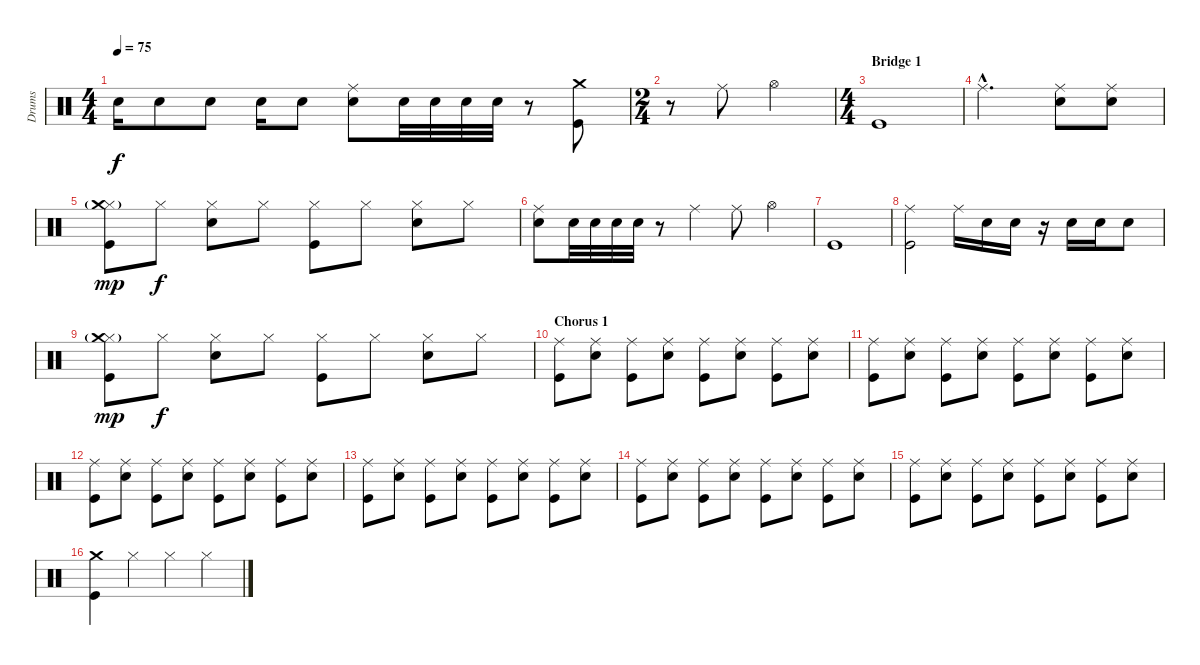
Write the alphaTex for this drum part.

\track ("Drums" "Drums") {instrument percussion}
\staff {score}
\articulation defaults
\ts (4 4)
\tempo 75
\clef neutral
\ks c "Snare (hit) 2".16{dy f} "Snare (hit) 2".8 "Snare (hit) 2".8 "Snare (hit) 2".16 "Snare (hit) 2".8
("Ride (middle)" "Snare (hit) 2").8 "Snare (hit) 2".32 "Snare (hit) 2".32 "Snare (hit) 2".32 "Snare (hit) 2".32 r.8 ("Crash medium (hit)" "Kick (hit)").8 |
\ts (2 4)
r.8 "Ride (middle)".8 "Hi-Hat (open)".4 |
\ts (4 4)
\section ("" "Bridge 1")
"Kick (hit)".1 |
"Ride (middle)"{hac}.2{d} ("Ride (middle)" "Snare (hit) 2").8 ("Ride (middle)" "Snare (hit) 2").8 |
("Hi-Hat (closed)" "Crash medium (hit)"{g} "Kick (hit)").8{dy mp} "Hi-Hat (closed)".8{dy f} ("Hi-Hat (closed)" "Snare (hit) 2").8 "Hi-Hat (closed)".8 ("Hi-Hat (closed)" "Kick (hit)").8 "Hi-Hat (closed)".8 ("Hi-Hat (closed)" "Snare (hit) 2").8 "Hi-Hat (closed)".8 |
("Ride (middle)" "Snare (hit) 2").8 "Snare (hit) 2".32 "Snare (hit) 2".32 "Snare (hit) 2".32 "Snare (hit) 2".32 r.8 "Ride (middle)".4 "Ride (middle)".8 "Hi-Hat (open)".4 |
"Kick (hit)".1 |
("Ride (middle)" "Kick (hit)").2 "Ride (middle)".16 "Snare (hit) 2".16 "Snare (hit) 2".16 r.16 "Snare (hit) 2".16 "Snare (hit) 2".16 "Snare (hit) 2".8 |
("Hi-Hat (closed)" "Crash medium (hit)"{g} "Kick (hit)").8{dy mp} "Hi-Hat (closed)".8{dy f} ("Hi-Hat (closed)" "Snare (hit) 2").8 "Hi-Hat (closed)".8 ("Hi-Hat (closed)" "Kick (hit)").8 "Hi-Hat (closed)".8 ("Hi-Hat (closed)" "Snare (hit) 2").8 "Hi-Hat (closed)".8 |
\section ("" "Chorus 1")
("Ride (middle)" "Kick (hit)").8 ("Ride (middle)" "Snare (hit) 2").8 ("Ride (middle)" "Kick (hit)").8 ("Ride (middle)" "Snare (hit) 2").8 ("Ride (middle)" "Kick (hit)").8 ("Ride (middle)" "Snare (hit) 2").8 ("Ride (middle)" "Kick (hit)").8 ("Ride (middle)" "Snare (hit) 2").8 |
("Ride (middle)" "Kick (hit)").8 ("Ride (middle)" "Snare (hit) 2").8 ("Ride (middle)" "Kick (hit)").8 ("Ride (middle)" "Snare (hit) 2").8 ("Ride (middle)" "Kick (hit)").8 ("Ride (middle)" "Snare (hit) 2").8 ("Ride (middle)" "Kick (hit)").8 ("Ride (middle)" "Snare (hit) 2").8 |
("Ride (middle)" "Kick (hit)").8 ("Ride (middle)" "Snare (hit) 2").8 ("Ride (middle)" "Kick (hit)").8 ("Ride (middle)" "Snare (hit) 2").8 ("Ride (middle)" "Kick (hit)").8 ("Ride (middle)" "Snare (hit) 2").8 ("Ride (middle)" "Kick (hit)").8 ("Ride (middle)" "Snare (hit) 2").8 |
("Ride (middle)" "Kick (hit)").8 ("Ride (middle)" "Snare (hit) 2").8 ("Ride (middle)" "Kick (hit)").8 ("Ride (middle)" "Snare (hit) 2").8 ("Ride (middle)" "Kick (hit)").8 ("Ride (middle)" "Snare (hit) 2").8 ("Ride (middle)" "Kick (hit)").8 ("Ride (middle)" "Snare (hit) 2").8 |
("Ride (middle)" "Kick (hit)").8 ("Ride (middle)" "Snare (hit) 2").8 ("Ride (middle)" "Kick (hit)").8 ("Ride (middle)" "Snare (hit) 2").8 ("Ride (middle)" "Kick (hit)").8 ("Ride (middle)" "Snare (hit) 2").8 ("Ride (middle)" "Kick (hit)").8 ("Ride (middle)" "Snare (hit) 2").8 |
("Ride (middle)" "Kick (hit)").8 ("Ride (middle)" "Snare (hit) 2").8 ("Ride (middle)" "Kick (hit)").8 ("Ride (middle)" "Snare (hit) 2").8 ("Ride (middle)" "Kick (hit)").8 ("Ride (middle)" "Snare (hit) 2").8 ("Ride (middle)" "Kick (hit)").8 ("Ride (middle)" "Snare (hit) 2").8 |
("Crash medium (hit)" "Kick (hit)").4 "Hi-Hat (closed)".4 "Hi-Hat (closed)".4 "Hi-Hat (closed)".4
